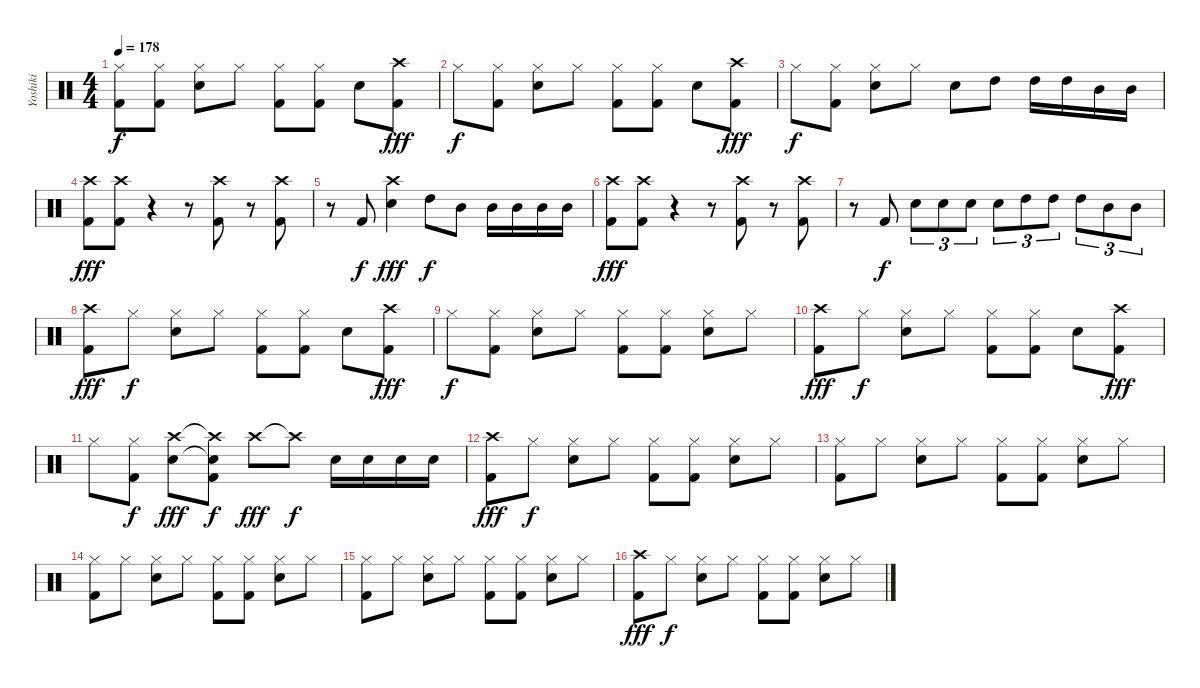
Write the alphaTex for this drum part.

\track ("Yoshiki" "Yoshiki") {instrument percussion}
\staff {score}
\articulation defaults
\ts (4 4)
\tempo 178
\clef neutral
\ks c
("Hi-Hat (closed)" "Kick (hit) 2").8{dy f} ("Hi-Hat (closed)" "Kick (hit) 2").8 ("Hi-Hat (closed)" "Snare (hit) 2").8 "Hi-Hat (closed)".8 ("Hi-Hat (closed)" "Kick (hit) 2").8 ("Hi-Hat (closed)" "Kick (hit) 2").8 "Snare (hit) 2".8 ("Crash high (hit)" "Kick (hit) 2").8{dy fff} |
"Hi-Hat (closed)".8{dy f} ("Hi-Hat (closed)" "Kick (hit) 2").8 ("Hi-Hat (closed)" "Snare (hit) 2").8 "Hi-Hat (closed)".8 ("Hi-Hat (closed)" "Kick (hit) 2").8 ("Hi-Hat (closed)" "Kick (hit) 2").8 "Snare (hit) 2".8 ("Crash high (hit)" "Kick (hit) 2").8{dy fff} |
"Hi-Hat (closed)".8{dy f} ("Hi-Hat (closed)" "Kick (hit) 2").8 ("Hi-Hat (closed)" "Snare (hit) 2").8 "Hi-Hat (closed)".8 "Snare (hit) 2".8 "High Tom (hit)".8 "High Tom (hit)".16 "High Tom (hit)".16 "Mid Tom (hit)".16 "Mid Tom (hit)".16 |
("Crash high (hit)" "Kick (hit) 2").8{dy fff} ("Crash high (hit)" "Kick (hit) 2").8 r.4 r.8 ("Crash high (hit)" "Kick (hit) 2").8 r.8 ("Crash high (hit)" "Kick (hit) 2").8 |
r.8 "Kick (hit) 2".8{dy f} ("Crash high (hit)" "Snare (hit) 2").4{dy fff} "High Tom (hit)".8{dy f} "Mid Tom (hit)".8 "Mid Tom (hit)".16 "Mid Tom (hit)".16 "Mid Tom (hit)".16 "Mid Tom (hit)".16 |
("Crash high (hit)" "Kick (hit) 2").8{dy fff} ("Crash high (hit)" "Kick (hit) 2").8 r.4 r.8 ("Crash high (hit)" "Kick (hit) 2").8 r.8 ("Crash high (hit)" "Kick (hit) 2").8 |
r.8 "Kick (hit) 2".8{dy f} "Snare (hit) 2".8{tu (3 2)} "Snare (hit) 2".8{tu (3 2)} "Snare (hit) 2".8{tu (3 2)} "Snare (hit) 2".8{tu (3 2)} "High Tom (hit)".8{tu (3 2)} "High Tom (hit)".8{tu (3 2)} "High Tom (hit)".8{tu (3 2)} "Mid Tom (hit)".8{tu (3 2)} "Mid Tom (hit)".8{tu (3 2)} |
("Crash high (hit)" "Kick (hit) 2").8{dy fff} "Hi-Hat (closed)".8{dy f} ("Hi-Hat (closed)" "Snare (hit) 2").8 "Hi-Hat (closed)".8 ("Hi-Hat (closed)" "Kick (hit) 2").8 ("Hi-Hat (closed)" "Kick (hit) 2").8 "Snare (hit) 2".8 ("Crash high (hit)" "Kick (hit) 2").8{dy fff} |
"Hi-Hat (closed)".8{dy f} ("Hi-Hat (closed)" "Kick (hit) 2").8 ("Hi-Hat (closed)" "Snare (hit) 2").8 "Hi-Hat (closed)".8 ("Hi-Hat (closed)" "Kick (hit) 2").8 ("Hi-Hat (closed)" "Kick (hit) 2").8 ("Hi-Hat (closed)" "Snare (hit) 2").8 "Hi-Hat (closed)".8 |
("Crash high (hit)" "Kick (hit) 2").8{dy fff} "Hi-Hat (closed)".8{dy f} ("Hi-Hat (closed)" "Snare (hit) 2").8 "Hi-Hat (closed)".8 ("Hi-Hat (closed)" "Kick (hit) 2").8 ("Hi-Hat (closed)" "Kick (hit) 2").8 "Snare (hit) 2".8 ("Crash high (hit)" "Kick (hit) 2").8{dy fff} |
"Hi-Hat (closed)".8 ("Hi-Hat (closed)" "Kick (hit) 2").8{dy f} ("Crash high (hit)" "Snare (hit) 2").8{dy fff} ("Crash high (hit)"{t} "Snare (hit) 2"{t} "Kick (hit) 2").8{dy f} "Crash high (hit)".8{dy fff} "Crash high (hit)"{t}.8{dy f} "Snare (hit) 2".16 "Snare (hit) 2".16 "Snare (hit) 2".16 "Snare (hit) 2".16 |
("Crash high (hit)" "Kick (hit) 2").8{dy fff} "Hi-Hat (closed)".8{dy f} ("Hi-Hat (closed)" "Snare (hit) 2").8 "Hi-Hat (closed)".8 ("Hi-Hat (closed)" "Kick (hit) 2").8 ("Hi-Hat (closed)" "Kick (hit) 2").8 ("Hi-Hat (closed)" "Snare (hit) 2").8 "Hi-Hat (closed)".8 |
("Hi-Hat (closed)" "Kick (hit) 2").8 "Hi-Hat (closed)".8 ("Hi-Hat (closed)" "Snare (hit) 2").8 "Hi-Hat (closed)".8 ("Hi-Hat (closed)" "Kick (hit) 2").8 ("Hi-Hat (closed)" "Kick (hit) 2").8 ("Hi-Hat (closed)" "Snare (hit) 2").8 "Hi-Hat (closed)".8 |
("Hi-Hat (closed)" "Kick (hit) 2").8 "Hi-Hat (closed)".8 ("Hi-Hat (closed)" "Snare (hit) 2").8 "Hi-Hat (closed)".8 ("Hi-Hat (closed)" "Kick (hit) 2").8 ("Hi-Hat (closed)" "Kick (hit) 2").8 ("Hi-Hat (closed)" "Snare (hit) 2").8 "Hi-Hat (closed)".8 |
("Hi-Hat (closed)" "Kick (hit) 2").8 "Hi-Hat (closed)".8 ("Hi-Hat (closed)" "Snare (hit) 2").8 "Hi-Hat (closed)".8 ("Hi-Hat (closed)" "Kick (hit) 2").8 ("Hi-Hat (closed)" "Kick (hit) 2").8 ("Hi-Hat (closed)" "Snare (hit) 2").8 "Hi-Hat (closed)".8 |
("Crash high (hit)" "Kick (hit) 2").8{dy fff} "Hi-Hat (closed)".8{dy f} ("Hi-Hat (closed)" "Snare (hit) 2").8 "Hi-Hat (closed)".8 ("Hi-Hat (closed)" "Kick (hit) 2").8 ("Hi-Hat (closed)" "Kick (hit) 2").8 ("Hi-Hat (closed)" "Snare (hit) 2").8 "Hi-Hat (closed)".8
